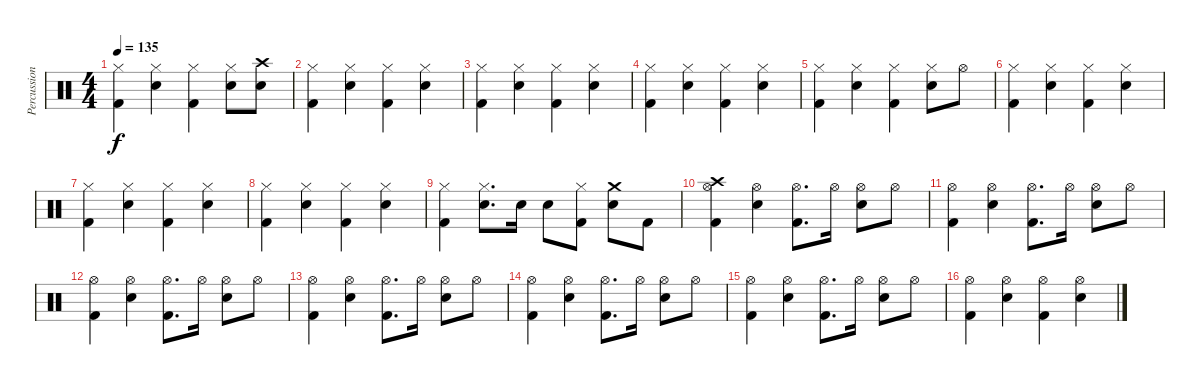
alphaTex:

\track ("Percussions" "Percussion") {instrument percussion}
\staff {score}
\articulation defaults
\ts (4 4)
\tempo 135
\clef neutral
\ks c
("Hi-Hat (closed)" "Kick (hit) 2").4{dy f} ("Hi-Hat (closed)" "Snare (hit) 2").4 ("Hi-Hat (closed)" "Kick (hit) 2").4 ("Hi-Hat (closed)" "Snare (hit) 2").8 ("Crash high (hit)" "Snare (hit) 2").8 |
("Hi-Hat (closed)" "Kick (hit) 2").4 ("Hi-Hat (closed)" "Snare (hit) 2").4 ("Hi-Hat (closed)" "Kick (hit) 2").4 ("Hi-Hat (closed)" "Snare (hit) 2").4 |
("Hi-Hat (closed)" "Kick (hit) 2").4 ("Hi-Hat (closed)" "Snare (hit) 2").4 ("Hi-Hat (closed)" "Kick (hit) 2").4 ("Hi-Hat (closed)" "Snare (hit) 2").4 |
("Hi-Hat (closed)" "Kick (hit) 2").4 ("Hi-Hat (closed)" "Snare (hit) 2").4 ("Hi-Hat (closed)" "Kick (hit) 2").4 ("Hi-Hat (closed)" "Snare (hit) 2").4 |
("Hi-Hat (closed)" "Kick (hit) 2").4 ("Hi-Hat (closed)" "Snare (hit) 2").4 ("Hi-Hat (closed)" "Kick (hit) 2").4 ("Hi-Hat (closed)" "Snare (hit) 2").8 "Hi-Hat (open)".8 |
("Hi-Hat (closed)" "Kick (hit) 2").4 ("Hi-Hat (closed)" "Snare (hit) 2").4 ("Hi-Hat (closed)" "Kick (hit) 2").4 ("Hi-Hat (closed)" "Snare (hit) 2").4 |
("Hi-Hat (closed)" "Kick (hit) 2").4 ("Hi-Hat (closed)" "Snare (hit) 2").4 ("Hi-Hat (closed)" "Kick (hit) 2").4 ("Hi-Hat (closed)" "Snare (hit) 2").4 |
("Hi-Hat (closed)" "Kick (hit) 2").4 ("Hi-Hat (closed)" "Snare (hit) 2").4 ("Hi-Hat (closed)" "Kick (hit) 2").4 ("Hi-Hat (closed)" "Snare (hit) 2").4 |
("Hi-Hat (closed)" "Kick (hit) 2").4 ("Hi-Hat (closed)" "Snare (hit) 2").8{d} "Snare (hit) 2".16 "Snare (hit) 2".8 ("Hi-Hat (closed)" "Kick (hit) 2").8 ("Crash medium (hit)" "Snare (hit) 2").8 "Kick (hit) 2".8 |
("Crash high (hit)" "Hi-Hat (open)" "Kick (hit) 2").4 ("Hi-Hat (open)" "Snare (hit) 2").4 ("Hi-Hat (open)" "Kick (hit) 2").8{d} "Hi-Hat (open)".16 ("Hi-Hat (open)" "Snare (hit) 2").8 "Hi-Hat (open)".8 |
("Hi-Hat (open)" "Kick (hit) 2").4 ("Hi-Hat (open)" "Snare (hit) 2").4 ("Hi-Hat (open)" "Kick (hit) 2").8{d} "Hi-Hat (open)".16 ("Hi-Hat (open)" "Snare (hit) 2").8 "Hi-Hat (open)".8 |
("Hi-Hat (open)" "Kick (hit) 2").4 ("Hi-Hat (open)" "Snare (hit) 2").4 ("Hi-Hat (open)" "Kick (hit) 2").8{d} "Hi-Hat (open)".16 ("Hi-Hat (open)" "Snare (hit) 2").8 "Hi-Hat (open)".8 |
("Hi-Hat (open)" "Kick (hit) 2").4 ("Hi-Hat (open)" "Snare (hit) 2").4 ("Hi-Hat (open)" "Kick (hit) 2").8{d} "Hi-Hat (open)".16 ("Hi-Hat (open)" "Snare (hit) 2").8 "Hi-Hat (open)".8 |
("Hi-Hat (open)" "Kick (hit) 2").4 ("Hi-Hat (open)" "Snare (hit) 2").4 ("Hi-Hat (open)" "Kick (hit) 2").8{d} "Hi-Hat (open)".16 ("Hi-Hat (open)" "Snare (hit) 2").8 "Hi-Hat (open)".8 |
("Hi-Hat (open)" "Kick (hit) 2").4 ("Hi-Hat (open)" "Snare (hit) 2").4 ("Hi-Hat (open)" "Kick (hit) 2").8{d} "Hi-Hat (open)".16 ("Hi-Hat (open)" "Snare (hit) 2").8 "Hi-Hat (open)".8 |
("Hi-Hat (open)" "Kick (hit) 2").4 ("Hi-Hat (open)" "Snare (hit) 2").4 ("Hi-Hat (open)" "Kick (hit) 2").4 ("Hi-Hat (open)" "Snare (hit) 2").4
